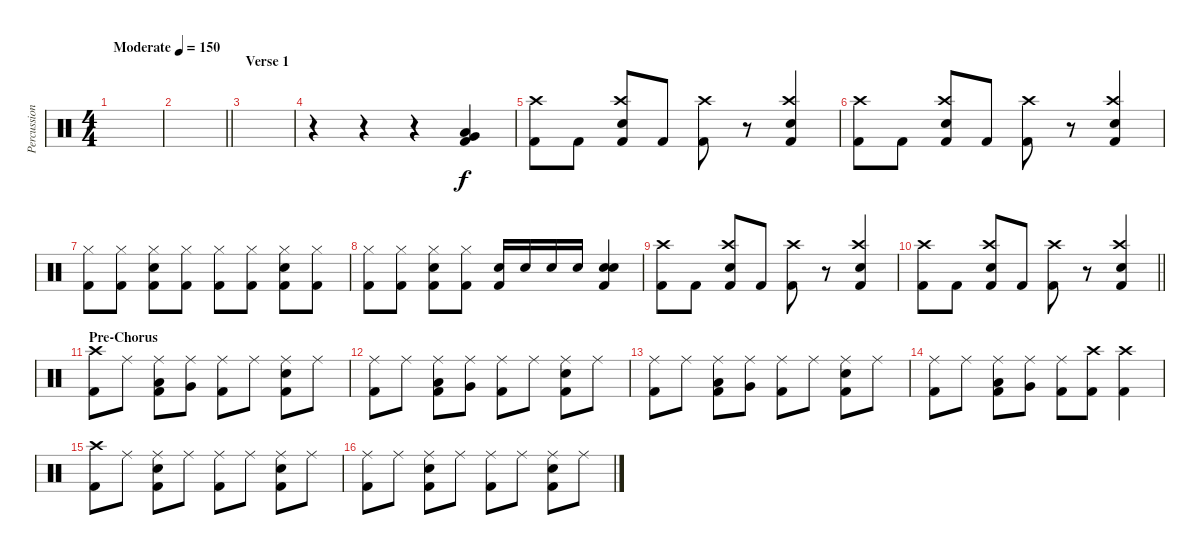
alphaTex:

\track ("Percussion" "Percussion") {instrument percussion}
\staff {score}
\articulation defaults
\ts (4 4)
\tempo (150 "Moderate")
\clef neutral
\ks c
|
\barLineRight lightlight
|
\section ("" "Verse 1")
|
r.4 r.4 r.4 ("Very Low Tom (hit)" "Low Floor Tom (hit)" "Kick (hit) 2").4 |
("Crash high (hit)" "Kick (hit) 2").8 "Kick (hit) 2".8 ("Crash high (hit)" "Electric Snare (hit)" "Kick (hit) 2").8 "Kick (hit) 2".8 ("Crash high (hit)" "Kick (hit) 2").8 r.8 ("Crash high (hit)" "Electric Snare (hit)" "Kick (hit) 2").4 |
("Crash high (hit)" "Kick (hit) 2").8 "Kick (hit) 2".8 ("Crash high (hit)" "Electric Snare (hit)" "Kick (hit) 2").8 "Kick (hit) 2".8 ("Crash high (hit)" "Kick (hit) 2").8 r.8 ("Crash high (hit)" "Electric Snare (hit)" "Kick (hit) 2").4 |
("Hi-Hat (closed)" "Kick (hit) 2").8 ("Hi-Hat (closed)" "Kick (hit) 2").8 ("Hi-Hat (closed)" "Electric Snare (hit)" "Kick (hit) 2").8 ("Hi-Hat (closed)" "Kick (hit) 2").8 ("Hi-Hat (closed)" "Kick (hit) 2").8 ("Hi-Hat (closed)" "Kick (hit) 2").8 ("Hi-Hat (closed)" "Electric Snare (hit)" "Kick (hit) 2").8 ("Hi-Hat (closed)" "Kick (hit) 2").8 |
("Hi-Hat (closed)" "Kick (hit) 2").8 ("Hi-Hat (closed)" "Kick (hit) 2").8 ("Hi-Hat (closed)" "Electric Snare (hit)" "Kick (hit) 2").8 ("Hi-Hat (closed)" "Kick (hit) 2").8 ("Electric Snare (hit)" "Kick (hit) 2").16 "Electric Snare (hit)".16 "Electric Snare (hit)".16 "Electric Snare (hit)".16 ("Electric Snare (hit)" "Electric Snare (hit)" "Kick (hit) 2").4 |
("Crash high (hit)" "Kick (hit) 2").8 "Kick (hit) 2".8 ("Crash high (hit)" "Electric Snare (hit)" "Kick (hit) 2").8 "Kick (hit) 2".8 ("Crash high (hit)" "Kick (hit) 2").8 r.8 ("Crash high (hit)" "Electric Snare (hit)" "Kick (hit) 2").4 |
\barLineRight lightlight
("Crash high (hit)" "Kick (hit) 2").8 "Kick (hit) 2".8 ("Crash high (hit)" "Electric Snare (hit)" "Kick (hit) 2").8 "Kick (hit) 2".8 ("Crash high (hit)" "Kick (hit) 2").8 r.8 ("Crash high (hit)" "Electric Snare (hit)" "Kick (hit) 2").4 |
\section ("" "Pre-Chorus")
("Crash high (hit)" "Kick (hit) 2").8 "Ride (middle)".8 ("Ride (middle)" "Low Tom (hit)" "Kick (hit) 2").8 ("Ride (middle)" "Very Low Tom (hit)").8 ("Ride (middle)" "Kick (hit) 2").8 "Ride (middle)".8 ("Ride (middle)" "Electric Snare (hit)" "Kick (hit) 2").8 "Ride (middle)".8 |
("Ride (middle)" "Kick (hit) 2").8 "Ride (middle)".8 ("Ride (middle)" "Low Tom (hit)" "Kick (hit) 2").8 ("Ride (middle)" "Very Low Tom (hit)").8 ("Ride (middle)" "Kick (hit) 2").8 "Ride (middle)".8 ("Ride (middle)" "Electric Snare (hit)" "Kick (hit) 2").8 "Ride (middle)".8 |
("Ride (middle)" "Kick (hit) 2").8 "Ride (middle)".8 ("Ride (middle)" "Low Tom (hit)" "Kick (hit) 2").8 ("Ride (middle)" "Very Low Tom (hit)").8 ("Ride (middle)" "Kick (hit) 2").8 "Ride (middle)".8 ("Ride (middle)" "Electric Snare (hit)" "Kick (hit) 2").8 "Ride (middle)".8 |
("Ride (middle)" "Kick (hit) 2").8 "Ride (middle)".8 ("Ride (middle)" "Low Tom (hit)" "Kick (hit) 2").8 ("Ride (middle)" "Very Low Tom (hit)").8 ("Ride (middle)" "Kick (hit) 2").8 ("Crash high (hit)" "Kick (hit) 2").8 ("Crash high (hit)" "Kick (hit) 2").4 |
("Crash high (hit)" "Kick (hit) 2").8 "Ride (middle)".8 ("Ride (middle)" "Electric Snare (hit)" "Kick (hit) 2").8 "Ride (middle)".8 ("Ride (middle)" "Kick (hit) 2").8 "Ride (middle)".8 ("Ride (middle)" "Electric Snare (hit)" "Kick (hit) 2").8 "Ride (middle)".8 |
("Ride (middle)" "Kick (hit) 2").8 "Ride (middle)".8 ("Ride (middle)" "Electric Snare (hit)" "Kick (hit) 2").8 "Ride (middle)".8 ("Ride (middle)" "Kick (hit) 2").8 "Ride (middle)".8 ("Ride (middle)" "Electric Snare (hit)" "Kick (hit) 2").8 "Ride (middle)".8
